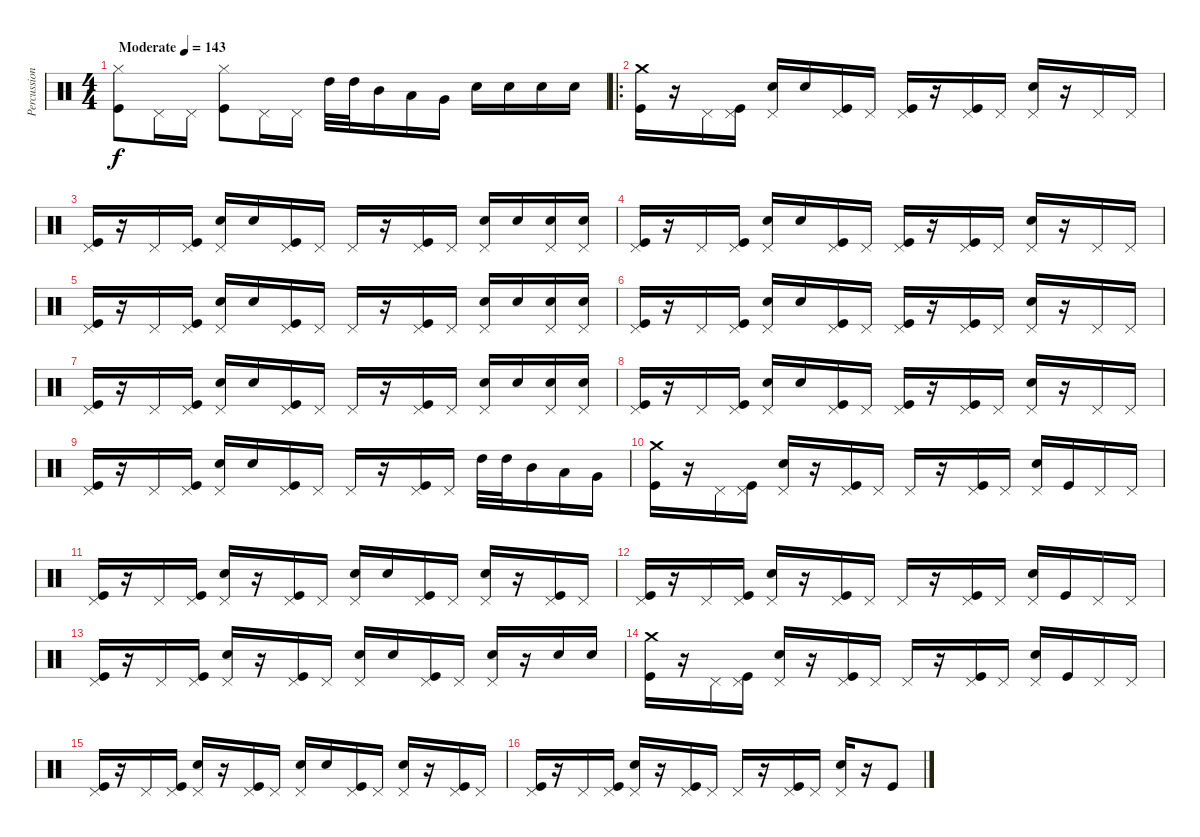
\track ("Percussion" "Percussion") {instrument percussion}
\staff {score}
\articulation defaults
\ts (4 4)
\tempo (143 "Moderate")
\clef neutral
\ks c
("Hi-Hat (closed)" "Kick (hit)").8{dy f} "Pedal Hi-Hat (hit)".16 "Pedal Hi-Hat (hit)".16 ("Hi-Hat (closed)" "Kick (hit)").8 "Pedal Hi-Hat (hit)".16 "Pedal Hi-Hat (hit)".16 "High Tom (hit)".32 "High Tom (hit)".32 "Mid Tom (hit)".16 "Low Tom (hit)".16 "Very Low Tom (hit)".16 "Electric Snare (hit)".16 "Electric Snare (hit)".16 "Electric Snare (hit)".16 "Electric Snare (hit)".16 |
\ro
("Crash medium (hit)" "Kick (hit)").16 r.16 "Pedal Hi-Hat (hit)".16 ("Pedal Hi-Hat (hit)" "Kick (hit)").16 ("Pedal Hi-Hat (hit)" "Electric Snare (hit)").16 "Electric Snare (hit)".16 ("Pedal Hi-Hat (hit)" "Kick (hit)").16 "Pedal Hi-Hat (hit)".16 ("Pedal Hi-Hat (hit)" "Kick (hit)").16 r.16 ("Pedal Hi-Hat (hit)" "Kick (hit)").16 "Pedal Hi-Hat (hit)".16 ("Pedal Hi-Hat (hit)" "Electric Snare (hit)").16 r.16 "Pedal Hi-Hat (hit)".16 "Pedal Hi-Hat (hit)".16 |
("Pedal Hi-Hat (hit)" "Kick (hit)").16 r.16 "Pedal Hi-Hat (hit)".16 ("Pedal Hi-Hat (hit)" "Kick (hit)").16 ("Pedal Hi-Hat (hit)" "Electric Snare (hit)").16 "Electric Snare (hit)".16 ("Pedal Hi-Hat (hit)" "Kick (hit)").16 "Pedal Hi-Hat (hit)".16 "Pedal Hi-Hat (hit)".16 r.16 ("Pedal Hi-Hat (hit)" "Kick (hit)").16 "Pedal Hi-Hat (hit)".16 ("Pedal Hi-Hat (hit)" "Electric Snare (hit)").16 "Electric Snare (hit)".16 ("Pedal Hi-Hat (hit)" "Electric Snare (hit)").16 ("Pedal Hi-Hat (hit)" "Electric Snare (hit)").16 |
("Pedal Hi-Hat (hit)" "Kick (hit)").16 r.16 "Pedal Hi-Hat (hit)".16 ("Pedal Hi-Hat (hit)" "Kick (hit)").16 ("Pedal Hi-Hat (hit)" "Electric Snare (hit)").16 "Electric Snare (hit)".16 ("Pedal Hi-Hat (hit)" "Kick (hit)").16 "Pedal Hi-Hat (hit)".16 ("Pedal Hi-Hat (hit)" "Kick (hit)").16 r.16 ("Pedal Hi-Hat (hit)" "Kick (hit)").16 "Pedal Hi-Hat (hit)".16 ("Pedal Hi-Hat (hit)" "Electric Snare (hit)").16 r.16 "Pedal Hi-Hat (hit)".16 "Pedal Hi-Hat (hit)".16 |
("Pedal Hi-Hat (hit)" "Kick (hit)").16 r.16 "Pedal Hi-Hat (hit)".16 ("Pedal Hi-Hat (hit)" "Kick (hit)").16 ("Pedal Hi-Hat (hit)" "Electric Snare (hit)").16 "Electric Snare (hit)".16 ("Pedal Hi-Hat (hit)" "Kick (hit)").16 "Pedal Hi-Hat (hit)".16 "Pedal Hi-Hat (hit)".16 r.16 ("Pedal Hi-Hat (hit)" "Kick (hit)").16 "Pedal Hi-Hat (hit)".16 ("Pedal Hi-Hat (hit)" "Electric Snare (hit)").16 "Electric Snare (hit)".16 ("Pedal Hi-Hat (hit)" "Electric Snare (hit)").16 ("Pedal Hi-Hat (hit)" "Electric Snare (hit)").16 |
("Pedal Hi-Hat (hit)" "Kick (hit)").16 r.16 "Pedal Hi-Hat (hit)".16 ("Pedal Hi-Hat (hit)" "Kick (hit)").16 ("Pedal Hi-Hat (hit)" "Electric Snare (hit)").16 "Electric Snare (hit)".16 ("Pedal Hi-Hat (hit)" "Kick (hit)").16 "Pedal Hi-Hat (hit)".16 ("Pedal Hi-Hat (hit)" "Kick (hit)").16 r.16 ("Pedal Hi-Hat (hit)" "Kick (hit)").16 "Pedal Hi-Hat (hit)".16 ("Pedal Hi-Hat (hit)" "Electric Snare (hit)").16 r.16 "Pedal Hi-Hat (hit)".16 "Pedal Hi-Hat (hit)".16 |
("Pedal Hi-Hat (hit)" "Kick (hit)").16 r.16 "Pedal Hi-Hat (hit)".16 ("Pedal Hi-Hat (hit)" "Kick (hit)").16 ("Pedal Hi-Hat (hit)" "Electric Snare (hit)").16 "Electric Snare (hit)".16 ("Pedal Hi-Hat (hit)" "Kick (hit)").16 "Pedal Hi-Hat (hit)".16 "Pedal Hi-Hat (hit)".16 r.16 ("Pedal Hi-Hat (hit)" "Kick (hit)").16 "Pedal Hi-Hat (hit)".16 ("Pedal Hi-Hat (hit)" "Electric Snare (hit)").16 "Electric Snare (hit)".16 ("Pedal Hi-Hat (hit)" "Electric Snare (hit)").16 ("Pedal Hi-Hat (hit)" "Electric Snare (hit)").16 |
("Pedal Hi-Hat (hit)" "Kick (hit)").16 r.16 "Pedal Hi-Hat (hit)".16 ("Pedal Hi-Hat (hit)" "Kick (hit)").16 ("Pedal Hi-Hat (hit)" "Electric Snare (hit)").16 "Electric Snare (hit)".16 ("Pedal Hi-Hat (hit)" "Kick (hit)").16 "Pedal Hi-Hat (hit)".16 ("Pedal Hi-Hat (hit)" "Kick (hit)").16 r.16 ("Pedal Hi-Hat (hit)" "Kick (hit)").16 "Pedal Hi-Hat (hit)".16 ("Pedal Hi-Hat (hit)" "Electric Snare (hit)").16 r.16 "Pedal Hi-Hat (hit)".16 "Pedal Hi-Hat (hit)".16 |
("Pedal Hi-Hat (hit)" "Kick (hit)").16 r.16 "Pedal Hi-Hat (hit)".16 ("Pedal Hi-Hat (hit)" "Kick (hit)").16 ("Pedal Hi-Hat (hit)" "Electric Snare (hit)").16 "Electric Snare (hit)".16 ("Pedal Hi-Hat (hit)" "Kick (hit)").16 "Pedal Hi-Hat (hit)".16 "Pedal Hi-Hat (hit)".16 r.16 ("Pedal Hi-Hat (hit)" "Kick (hit)").16 "Pedal Hi-Hat (hit)".16 "High Tom (hit)".32 "High Tom (hit)".32 "Mid Tom (hit)".16 "Low Tom (hit)".16 "Very Low Tom (hit)".16 |
("Crash medium (hit)" "Kick (hit)").16 r.16 "Pedal Hi-Hat (hit)".16 ("Pedal Hi-Hat (hit)" "Kick (hit)").16 ("Pedal Hi-Hat (hit)" "Electric Snare (hit)").16 r.16 ("Pedal Hi-Hat (hit)" "Kick (hit)").16 "Pedal Hi-Hat (hit)".16 "Pedal Hi-Hat (hit)".16 r.16 ("Pedal Hi-Hat (hit)" "Kick (hit)").16 "Pedal Hi-Hat (hit)".16 ("Pedal Hi-Hat (hit)" "Electric Snare (hit)").16 "Kick (hit)".16 "Pedal Hi-Hat (hit)".16 "Pedal Hi-Hat (hit)".16 |
("Pedal Hi-Hat (hit)" "Kick (hit)").16 r.16 "Pedal Hi-Hat (hit)".16 ("Pedal Hi-Hat (hit)" "Kick (hit)").16 ("Pedal Hi-Hat (hit)" "Electric Snare (hit)").16 r.16 ("Pedal Hi-Hat (hit)" "Kick (hit)").16 "Pedal Hi-Hat (hit)".16 ("Pedal Hi-Hat (hit)" "Electric Snare (hit)").16 "Electric Snare (hit)".16 ("Pedal Hi-Hat (hit)" "Kick (hit)").16 "Pedal Hi-Hat (hit)".16 ("Pedal Hi-Hat (hit)" "Electric Snare (hit)").16 r.16 ("Pedal Hi-Hat (hit)" "Kick (hit)").16 "Pedal Hi-Hat (hit)".16 |
("Pedal Hi-Hat (hit)" "Kick (hit)").16 r.16 "Pedal Hi-Hat (hit)".16 ("Pedal Hi-Hat (hit)" "Kick (hit)").16 ("Pedal Hi-Hat (hit)" "Electric Snare (hit)").16 r.16 ("Pedal Hi-Hat (hit)" "Kick (hit)").16 "Pedal Hi-Hat (hit)".16 "Pedal Hi-Hat (hit)".16 r.16 ("Pedal Hi-Hat (hit)" "Kick (hit)").16 "Pedal Hi-Hat (hit)".16 ("Pedal Hi-Hat (hit)" "Electric Snare (hit)").16 "Kick (hit)".16 "Pedal Hi-Hat (hit)".16 "Pedal Hi-Hat (hit)".16 |
("Pedal Hi-Hat (hit)" "Kick (hit)").16 r.16 "Pedal Hi-Hat (hit)".16 ("Pedal Hi-Hat (hit)" "Kick (hit)").16 ("Pedal Hi-Hat (hit)" "Electric Snare (hit)").16 r.16 ("Pedal Hi-Hat (hit)" "Kick (hit)").16 "Pedal Hi-Hat (hit)".16 ("Pedal Hi-Hat (hit)" "Electric Snare (hit)").16 "Electric Snare (hit)".16 ("Pedal Hi-Hat (hit)" "Kick (hit)").16 "Pedal Hi-Hat (hit)".16 ("Pedal Hi-Hat (hit)" "Electric Snare (hit)").16 r.16 "Electric Snare (hit)".16 "Electric Snare (hit)".16 |
("Crash medium (hit)" "Kick (hit)").16 r.16 "Pedal Hi-Hat (hit)".16 ("Pedal Hi-Hat (hit)" "Kick (hit)").16 ("Pedal Hi-Hat (hit)" "Electric Snare (hit)").16 r.16 ("Pedal Hi-Hat (hit)" "Kick (hit)").16 "Pedal Hi-Hat (hit)".16 "Pedal Hi-Hat (hit)".16 r.16 ("Pedal Hi-Hat (hit)" "Kick (hit)").16 "Pedal Hi-Hat (hit)".16 ("Pedal Hi-Hat (hit)" "Electric Snare (hit)").16 "Kick (hit)".16 "Pedal Hi-Hat (hit)".16 "Pedal Hi-Hat (hit)".16 |
("Pedal Hi-Hat (hit)" "Kick (hit)").16 r.16 "Pedal Hi-Hat (hit)".16 ("Pedal Hi-Hat (hit)" "Kick (hit)").16 ("Pedal Hi-Hat (hit)" "Electric Snare (hit)").16 r.16 ("Pedal Hi-Hat (hit)" "Kick (hit)").16 "Pedal Hi-Hat (hit)".16 ("Pedal Hi-Hat (hit)" "Electric Snare (hit)").16 "Electric Snare (hit)".16 ("Pedal Hi-Hat (hit)" "Kick (hit)").16 "Pedal Hi-Hat (hit)".16 ("Pedal Hi-Hat (hit)" "Electric Snare (hit)").16 r.16 ("Pedal Hi-Hat (hit)" "Kick (hit)").16 "Pedal Hi-Hat (hit)".16 |
("Pedal Hi-Hat (hit)" "Kick (hit)").16 r.16 "Pedal Hi-Hat (hit)".16 ("Pedal Hi-Hat (hit)" "Kick (hit)").16 ("Pedal Hi-Hat (hit)" "Electric Snare (hit)").16 r.16 ("Pedal Hi-Hat (hit)" "Kick (hit)").16 "Pedal Hi-Hat (hit)".16 "Pedal Hi-Hat (hit)".16 r.16 ("Pedal Hi-Hat (hit)" "Kick (hit)").16 "Pedal Hi-Hat (hit)".16 ("Pedal Hi-Hat (hit)" "Electric Snare (hit)").16 r.16 "Kick (hit)".8
